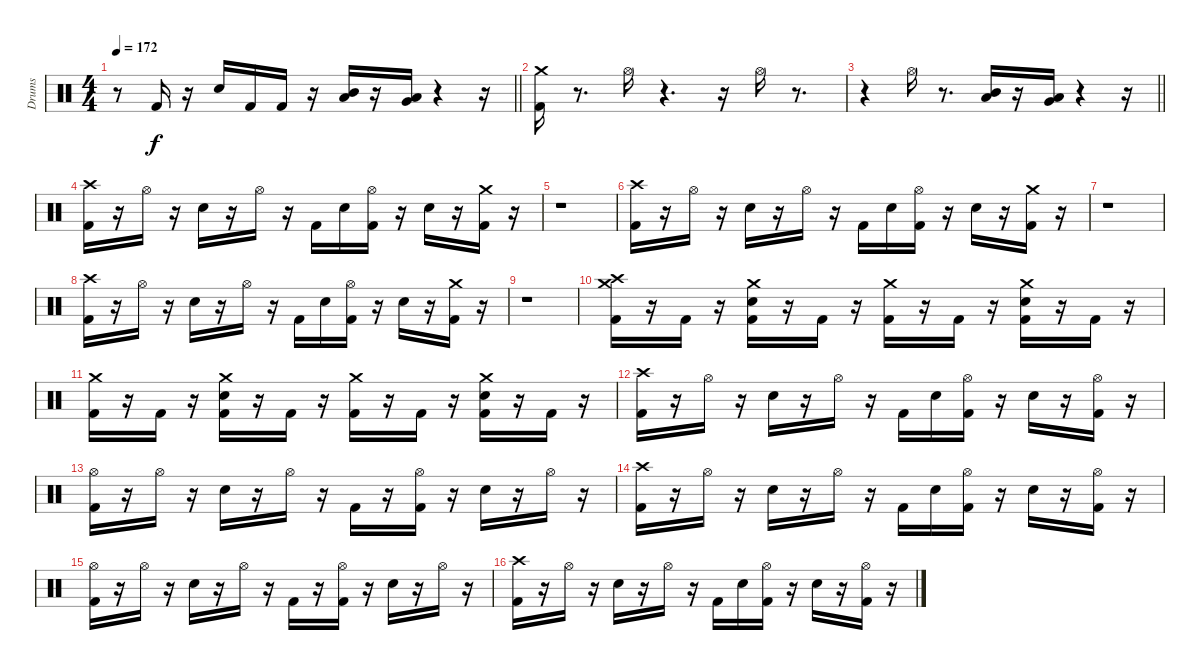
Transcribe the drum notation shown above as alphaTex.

\track ("Drums" "Drums") {instrument percussion}
\staff {score}
\articulation defaults
\ts (4 4)
\tempo 172
\clef neutral
\barLineRight lightlight
\ks c
r.8{dy f} "Kick (hit) 2".16 r.16 "Snare (hit) 2".16 "Kick (hit) 2".16 "Kick (hit) 2".16 r.16 ("Low Tom (hit)" "Mid Tom (hit)").16 r.16 ("Very Low Tom (hit)" "Low Tom (hit)").16 r.4 r.16 |
\section ("" " ")
("Kick (hit) 2" "Crash medium (hit)").16 r.8{d} "Hi-Hat (open)".16 r.4{d} r.16 "Hi-Hat (open)".16 r.8{d} |
\barLineRight lightlight
r.4 "Hi-Hat (open)".16 r.8{d} ("Low Tom (hit)" "Mid Tom (hit)").16 r.16 ("Very Low Tom (hit)" "Low Tom (hit)").16 r.4 r.16 |
\section ("" " ")
("Kick (hit) 2" "Crash high (hit)").16 r.16 "Hi-Hat (open)".16 r.16 "Snare (hit) 2".16 r.16 "Hi-Hat (open)".16 r.16 "Kick (hit) 2".16 "Snare (hit) 2".16 ("Kick (hit) 2" "Hi-Hat (open)").16 r.16 "Snare (hit) 2".16 r.16 ("Kick (hit) 2" "Crash medium (hit)").16 r.16 |
r.1 |
("Kick (hit) 2" "Crash high (hit)").16 r.16 "Hi-Hat (open)".16 r.16 "Snare (hit) 2".16 r.16 "Hi-Hat (open)".16 r.16 "Kick (hit) 2".16 "Snare (hit) 2".16 ("Kick (hit) 2" "Hi-Hat (open)").16 r.16 "Snare (hit) 2".16 r.16 ("Kick (hit) 2" "Crash medium (hit)").16 r.16 |
r.1 |
("Kick (hit) 2" "Crash high (hit)").16 r.16 "Hi-Hat (open)".16 r.16 "Snare (hit) 2".16 r.16 "Hi-Hat (open)".16 r.16 "Kick (hit) 2".16 "Snare (hit) 2".16 ("Kick (hit) 2" "Hi-Hat (open)").16 r.16 "Snare (hit) 2".16 r.16 ("Kick (hit) 2" "Crash medium (hit)").16 r.16 |
r.1 |
("Kick (hit) 2" "Crash medium (hit)" "Crash high (hit)").16 r.16 "Kick (hit) 2".16 r.16 ("Kick (hit) 2" "Snare (hit) 2" "Crash medium (hit)").16 r.16 "Kick (hit) 2".16 r.16 ("Kick (hit) 2" "Crash medium (hit)").16 r.16 "Kick (hit) 2".16 r.16 ("Kick (hit) 2" "Snare (hit) 2" "Crash medium (hit)").16 r.16 "Kick (hit) 2".16 r.16 |
("Kick (hit) 2" "Crash medium (hit)").16 r.16 "Kick (hit) 2".16 r.16 ("Kick (hit) 2" "Snare (hit) 2" "Crash medium (hit)").16 r.16 "Kick (hit) 2".16 r.16 ("Kick (hit) 2" "Crash medium (hit)").16 r.16 "Kick (hit) 2".16 r.16 ("Kick (hit) 2" "Snare (hit) 2" "Crash medium (hit)").16 r.16 "Kick (hit) 2".16 r.16 |
("Kick (hit) 2" "Crash high (hit)").16 r.16 "Hi-Hat (open)".16 r.16 "Snare (hit) 2".16 r.16 "Hi-Hat (open)".16 r.16 "Kick (hit) 2".16 "Snare (hit) 2".16 ("Kick (hit) 2" "Hi-Hat (open)").16 r.16 "Snare (hit) 2".16 r.16 ("Kick (hit) 2" "Hi-Hat (open)").16 r.16 |
("Kick (hit) 2" "Hi-Hat (open)").16 r.16 "Hi-Hat (open)".16 r.16 "Snare (hit) 2".16 r.16 "Hi-Hat (open)".16 r.16 "Kick (hit) 2".16 r.16 ("Kick (hit) 2" "Hi-Hat (open)").16 r.16 "Snare (hit) 2".16 r.16 "Hi-Hat (open)".16 r.16 |
("Kick (hit) 2" "Crash high (hit)").16 r.16 "Hi-Hat (open)".16 r.16 "Snare (hit) 2".16 r.16 "Hi-Hat (open)".16 r.16 "Kick (hit) 2".16 "Snare (hit) 2".16 ("Kick (hit) 2" "Hi-Hat (open)").16 r.16 "Snare (hit) 2".16 r.16 ("Kick (hit) 2" "Hi-Hat (open)").16 r.16 |
("Kick (hit) 2" "Hi-Hat (open)").16 r.16 "Hi-Hat (open)".16 r.16 "Snare (hit) 2".16 r.16 "Hi-Hat (open)".16 r.16 "Kick (hit) 2".16 r.16 ("Kick (hit) 2" "Hi-Hat (open)").16 r.16 "Snare (hit) 2".16 r.16 "Hi-Hat (open)".16 r.16 |
("Kick (hit) 2" "Crash high (hit)").16 r.16 "Hi-Hat (open)".16 r.16 "Snare (hit) 2".16 r.16 "Hi-Hat (open)".16 r.16 "Kick (hit) 2".16 "Snare (hit) 2".16 ("Kick (hit) 2" "Hi-Hat (open)").16 r.16 "Snare (hit) 2".16 r.16 ("Kick (hit) 2" "Hi-Hat (open)").16 r.16
